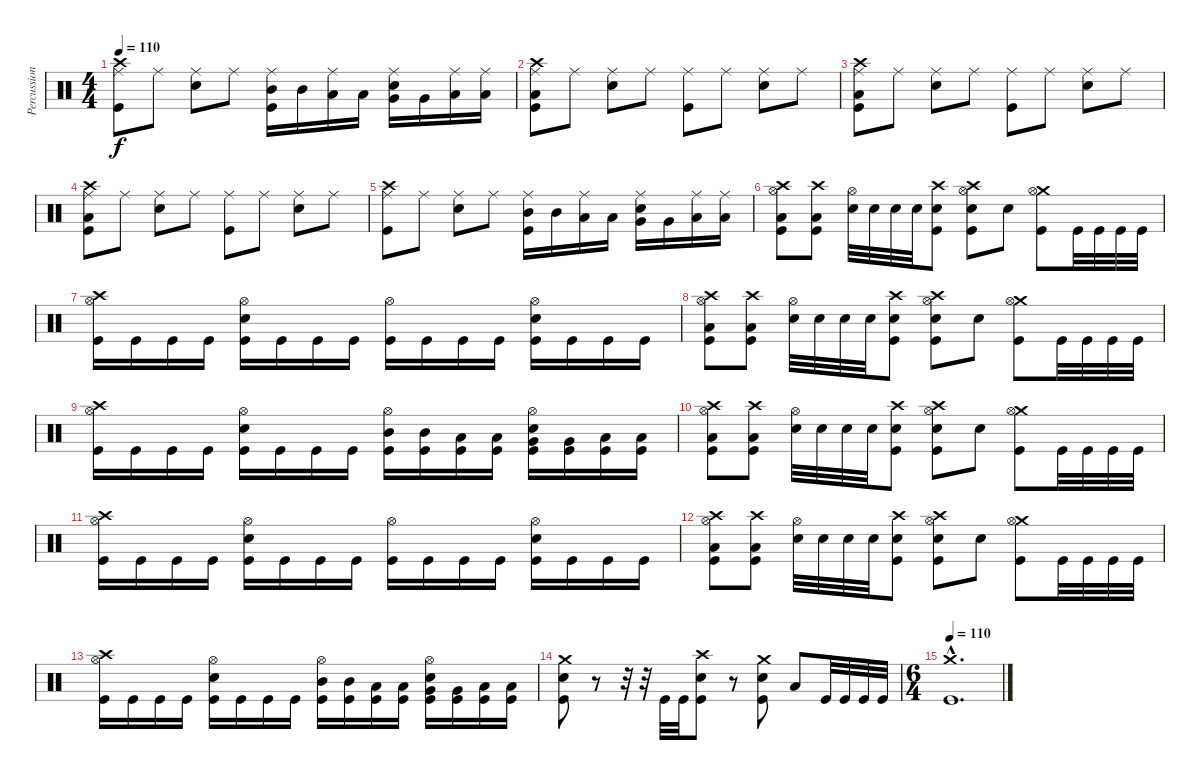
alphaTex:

\track ("Percussion" "Percussion") {instrument percussion}
\staff {score}
\articulation defaults
\ts (4 4)
\tempo 110
\clef neutral
\ks c
("Crash high (hit)" "Ride (middle)" "Kick (hit)").8{dy f} "Ride (middle)".8 ("Ride (middle)" "Electric Snare (hit)").8 "Ride (middle)".8 ("Mid Tom (hit)" "Ride (middle)" "Kick (hit)").16 "Mid Tom (hit)".16 ("Low Tom (hit)" "Ride (middle)").16 "Low Tom (hit)".16 ("Very Low Tom (hit)" "Ride (middle)" "Electric Snare (hit)").16 "Very Low Tom (hit)".16 ("Low Floor Tom (hit)" "Ride (middle)").16 ("Low Floor Tom (hit)" "Ride (middle)").16 |
("Crash high (hit)" "Ride (middle)" "Low Floor Tom (hit)" "Kick (hit)").8 "Ride (middle)".8 ("Ride (middle)" "Electric Snare (hit)").8 "Ride (middle)".8 ("Ride (middle)" "Kick (hit)").8 "Ride (middle)".8 ("Ride (middle)" "Electric Snare (hit)").8 "Ride (middle)".8 |
("Crash high (hit)" "Ride (middle)" "Low Floor Tom (hit)" "Kick (hit)").8 "Ride (middle)".8 ("Ride (middle)" "Electric Snare (hit)").8 "Ride (middle)".8 ("Ride (middle)" "Kick (hit)").8 "Ride (middle)".8 ("Ride (middle)" "Electric Snare (hit)").8 "Ride (middle)".8 |
("Crash high (hit)" "Ride (middle)" "Low Floor Tom (hit)" "Kick (hit)").8 "Ride (middle)".8 ("Ride (middle)" "Electric Snare (hit)").8 "Ride (middle)".8 ("Ride (middle)" "Kick (hit)").8 "Ride (middle)".8 ("Ride (middle)" "Electric Snare (hit)").8 "Ride (middle)".8 |
("Crash high (hit)" "Ride (middle)" "Kick (hit)").8 "Ride (middle)".8 ("Ride (middle)" "Electric Snare (hit)").8 "Ride (middle)".8 ("Mid Tom (hit)" "Ride (middle)" "Kick (hit)").16 "Mid Tom (hit)".16 ("Low Tom (hit)" "Ride (middle)").16 "Low Tom (hit)".16 ("Very Low Tom (hit)" "Ride (middle)" "Electric Snare (hit)").16 "Very Low Tom (hit)".16 ("Low Floor Tom (hit)" "Ride (middle)").16 ("Low Floor Tom (hit)" "Ride (middle)").16 |
("Crash high (hit)" "Low Floor Tom (hit)" "Hi-Hat (open)" "Kick (hit)").8 ("Crash high (hit)" "Low Floor Tom (hit)" "Kick (hit)").8 ("Electric Snare (hit)" "Hi-Hat (open)").32 "Electric Snare (hit)".32 "Electric Snare (hit)".32 "Electric Snare (hit)".32 ("Crash high (hit)" "Electric Snare (hit)" "Kick (hit)").8 ("Crash high (hit)" "Electric Snare (hit)" "Hi-Hat (open)" "Kick (hit)").8 "Electric Snare (hit)".8 ("Crash medium (hit)" "Hi-Hat (open)" "Kick (hit)").8 "Kick (hit)".32 "Kick (hit)".32 "Kick (hit)".32 "Kick (hit)".32 |
("Crash high (hit)" "Hi-Hat (open)" "Kick (hit)").16 "Kick (hit)".16 "Kick (hit)".16 "Kick (hit)".16 ("Electric Snare (hit)" "Hi-Hat (open)" "Kick (hit)").16 "Kick (hit)".16 "Kick (hit)".16 "Kick (hit)".16 ("Hi-Hat (open)" "Kick (hit)").16 "Kick (hit)".16 "Kick (hit)".16 "Kick (hit)".16 ("Electric Snare (hit)" "Hi-Hat (open)" "Kick (hit)").16 "Kick (hit)".16 "Kick (hit)".16 "Kick (hit)".16 |
("Crash high (hit)" "Low Floor Tom (hit)" "Hi-Hat (open)" "Kick (hit)").8 ("Crash high (hit)" "Low Floor Tom (hit)" "Kick (hit)").8 ("Electric Snare (hit)" "Hi-Hat (open)").32 "Electric Snare (hit)".32 "Electric Snare (hit)".32 "Electric Snare (hit)".32 ("Crash high (hit)" "Electric Snare (hit)" "Kick (hit)").8 ("Crash high (hit)" "Electric Snare (hit)" "Hi-Hat (open)" "Kick (hit)").8 "Electric Snare (hit)".8 ("Crash medium (hit)" "Hi-Hat (open)" "Kick (hit)").8 "Kick (hit)".32 "Kick (hit)".32 "Kick (hit)".32 "Kick (hit)".32 |
("Crash high (hit)" "Hi-Hat (open)" "Kick (hit)").16 "Kick (hit)".16 "Kick (hit)".16 "Kick (hit)".16 ("Electric Snare (hit)" "Hi-Hat (open)" "Kick (hit)").16 "Kick (hit)".16 "Kick (hit)".16 "Kick (hit)".16 ("Mid Tom (hit)" "Hi-Hat (open)" "Kick (hit)").16 ("Mid Tom (hit)" "Kick (hit)").16 ("Low Tom (hit)" "Kick (hit)").16 ("Low Tom (hit)" "Kick (hit)").16 ("Electric Snare (hit)" "Very Low Tom (hit)" "Hi-Hat (open)" "Kick (hit)").16 ("Very Low Tom (hit)" "Kick (hit)").16 ("Low Floor Tom (hit)" "Kick (hit)").16 ("Low Floor Tom (hit)" "Kick (hit)").16 |
("Crash high (hit)" "Low Floor Tom (hit)" "Hi-Hat (open)" "Kick (hit)").8 ("Crash high (hit)" "Low Floor Tom (hit)" "Kick (hit)").8 ("Electric Snare (hit)" "Hi-Hat (open)").32 "Electric Snare (hit)".32 "Electric Snare (hit)".32 "Electric Snare (hit)".32 ("Crash high (hit)" "Electric Snare (hit)" "Kick (hit)").8 ("Crash high (hit)" "Electric Snare (hit)" "Hi-Hat (open)" "Kick (hit)").8 "Electric Snare (hit)".8 ("Crash medium (hit)" "Hi-Hat (open)" "Kick (hit)").8 "Kick (hit)".32 "Kick (hit)".32 "Kick (hit)".32 "Kick (hit)".32 |
("Crash high (hit)" "Hi-Hat (open)" "Kick (hit)").16 "Kick (hit)".16 "Kick (hit)".16 "Kick (hit)".16 ("Electric Snare (hit)" "Hi-Hat (open)" "Kick (hit)").16 "Kick (hit)".16 "Kick (hit)".16 "Kick (hit)".16 ("Hi-Hat (open)" "Kick (hit)").16 "Kick (hit)".16 "Kick (hit)".16 "Kick (hit)".16 ("Electric Snare (hit)" "Hi-Hat (open)" "Kick (hit)").16 "Kick (hit)".16 "Kick (hit)".16 "Kick (hit)".16 |
("Crash high (hit)" "Low Floor Tom (hit)" "Hi-Hat (open)" "Kick (hit)").8 ("Crash high (hit)" "Low Floor Tom (hit)" "Kick (hit)").8 ("Electric Snare (hit)" "Hi-Hat (open)").32 "Electric Snare (hit)".32 "Electric Snare (hit)".32 "Electric Snare (hit)".32 ("Crash high (hit)" "Electric Snare (hit)" "Kick (hit)").8 ("Crash high (hit)" "Electric Snare (hit)" "Hi-Hat (open)" "Kick (hit)").8 "Electric Snare (hit)".8 ("Crash medium (hit)" "Hi-Hat (open)" "Kick (hit)").8 "Kick (hit)".32 "Kick (hit)".32 "Kick (hit)".32 "Kick (hit)".32 |
("Crash high (hit)" "Hi-Hat (open)" "Kick (hit)").16 "Kick (hit)".16 "Kick (hit)".16 "Kick (hit)".16 ("Electric Snare (hit)" "Hi-Hat (open)" "Kick (hit)").16 "Kick (hit)".16 "Kick (hit)".16 "Kick (hit)".16 ("Mid Tom (hit)" "Hi-Hat (open)" "Kick (hit)").16 ("Mid Tom (hit)" "Kick (hit)").16 ("Low Tom (hit)" "Kick (hit)").16 ("Low Tom (hit)" "Kick (hit)").16 ("Electric Snare (hit)" "Very Low Tom (hit)" "Hi-Hat (open)" "Kick (hit)").16 ("Very Low Tom (hit)" "Kick (hit)").16 ("Low Floor Tom (hit)" "Kick (hit)").16 ("Low Floor Tom (hit)" "Kick (hit)").16 |
("Crash medium (hit)" "Electric Snare (hit)" "Kick (hit)").8 r.8 r.32 r.32 "Kick (hit)".32 "Kick (hit)".32 ("Crash high (hit)" "Electric Snare (hit)" "Kick (hit)").8 r.8 ("Crash medium (hit)" "Electric Snare (hit)" "Kick (hit)").8 "Low Floor Tom (hit)".8 "Kick (hit)".32 "Kick (hit)".32 "Kick (hit)".32 "Kick (hit)".32 |
\ts (6 4)
\tempo 110
("Crash medium (hit)"{hac} "Kick (hit)"{hac}).1{d}
